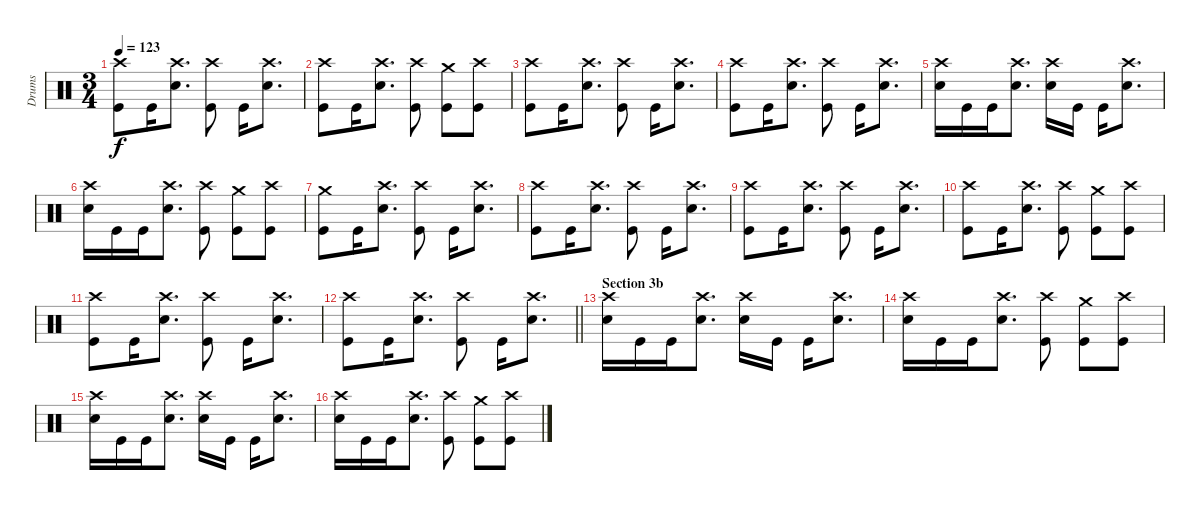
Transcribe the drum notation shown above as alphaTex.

\track ("Drums" "Drums") {instrument percussion}
\staff {score}
\articulation defaults
\ts (3 4)
\tempo 123
\clef neutral
\ks c
("Crash high (hit)" "Kick (hit)").8{dy f} "Kick (hit)".16 ("Crash high (hit)" "Snare (hit) 2").8{d} ("Crash high (hit)" "Kick (hit)").8 "Kick (hit)".16 ("Crash high (hit)" "Snare (hit) 2").8{d} |
("Crash high (hit)" "Kick (hit)").8 "Kick (hit)".16 ("Crash high (hit)" "Snare (hit) 2").8{d} ("Crash high (hit)" "Kick (hit)").8 ("Crash medium (hit)" "Kick (hit)").8 ("Crash high (hit)" "Kick (hit)").8 |
("Crash high (hit)" "Kick (hit)").8 "Kick (hit)".16 ("Crash high (hit)" "Snare (hit) 2").8{d} ("Crash high (hit)" "Kick (hit)").8 "Kick (hit)".16 ("Crash high (hit)" "Snare (hit) 2").8{d} |
("Crash high (hit)" "Kick (hit)").8 "Kick (hit)".16 ("Crash high (hit)" "Snare (hit) 2").8{d} ("Crash high (hit)" "Kick (hit)").8 "Kick (hit)".16 ("Crash high (hit)" "Snare (hit) 2").8{d} |
("Crash high (hit)" "Snare (hit) 2").16 "Kick (hit)".16 "Kick (hit)".16 ("Crash high (hit)" "Snare (hit) 2").8{d} ("Crash high (hit)" "Snare (hit) 2").16 "Kick (hit)".16 "Kick (hit)".16 ("Crash high (hit)" "Snare (hit) 2").8{d} |
("Crash high (hit)" "Snare (hit) 2").16 "Kick (hit)".16 "Kick (hit)".16 ("Crash high (hit)" "Snare (hit) 2").8{d} ("Crash high (hit)" "Kick (hit)").8 ("Crash medium (hit)" "Kick (hit)").8 ("Crash high (hit)" "Kick (hit)").8 |
("Crash medium (hit)" "Kick (hit)").8 "Kick (hit)".16 ("Crash high (hit)" "Snare (hit) 2").8{d} ("Crash high (hit)" "Kick (hit)").8 "Kick (hit)".16 ("Crash high (hit)" "Snare (hit) 2").8{d} |
("Crash high (hit)" "Kick (hit)").8 "Kick (hit)".16 ("Crash high (hit)" "Snare (hit) 2").8{d} ("Crash high (hit)" "Kick (hit)").8 "Kick (hit)".16 ("Crash high (hit)" "Snare (hit) 2").8{d} |
("Crash high (hit)" "Kick (hit)").8 "Kick (hit)".16 ("Crash high (hit)" "Snare (hit) 2").8{d} ("Crash high (hit)" "Kick (hit)").8 "Kick (hit)".16 ("Crash high (hit)" "Snare (hit) 2").8{d} |
("Crash high (hit)" "Kick (hit)").8 "Kick (hit)".16 ("Crash high (hit)" "Snare (hit) 2").8{d} ("Crash high (hit)" "Kick (hit)").8 ("Crash medium (hit)" "Kick (hit)").8 ("Crash high (hit)" "Kick (hit)").8 |
("Crash high (hit)" "Kick (hit)").8 "Kick (hit)".16 ("Crash high (hit)" "Snare (hit) 2").8{d} ("Crash high (hit)" "Kick (hit)").8 "Kick (hit)".16 ("Crash high (hit)" "Snare (hit) 2").8{d} |
\barLineRight lightlight
("Crash high (hit)" "Kick (hit)").8 "Kick (hit)".16 ("Crash high (hit)" "Snare (hit) 2").8{d} ("Crash high (hit)" "Kick (hit)").8 "Kick (hit)".16 ("Crash high (hit)" "Snare (hit) 2").8{d} |
\section ("" "Section 3b")
("Crash high (hit)" "Snare (hit) 2").16 "Kick (hit)".16 "Kick (hit)".16 ("Crash high (hit)" "Snare (hit) 2").8{d} ("Crash high (hit)" "Snare (hit) 2").16 "Kick (hit)".16 "Kick (hit)".16 ("Crash high (hit)" "Snare (hit) 2").8{d} |
("Crash high (hit)" "Snare (hit) 2").16 "Kick (hit)".16 "Kick (hit)".16 ("Crash high (hit)" "Snare (hit) 2").8{d} ("Crash high (hit)" "Kick (hit)").8 ("Crash medium (hit)" "Kick (hit)").8 ("Crash high (hit)" "Kick (hit)").8 |
("Crash high (hit)" "Snare (hit) 2").16 "Kick (hit)".16 "Kick (hit)".16 ("Crash high (hit)" "Snare (hit) 2").8{d} ("Crash high (hit)" "Snare (hit) 2").16 "Kick (hit)".16 "Kick (hit)".16 ("Crash high (hit)" "Snare (hit) 2").8{d} |
("Crash high (hit)" "Snare (hit) 2").16 "Kick (hit)".16 "Kick (hit)".16 ("Crash high (hit)" "Snare (hit) 2").8{d} ("Crash high (hit)" "Kick (hit)").8 ("Crash medium (hit)" "Kick (hit)").8 ("Crash high (hit)" "Kick (hit)").8
